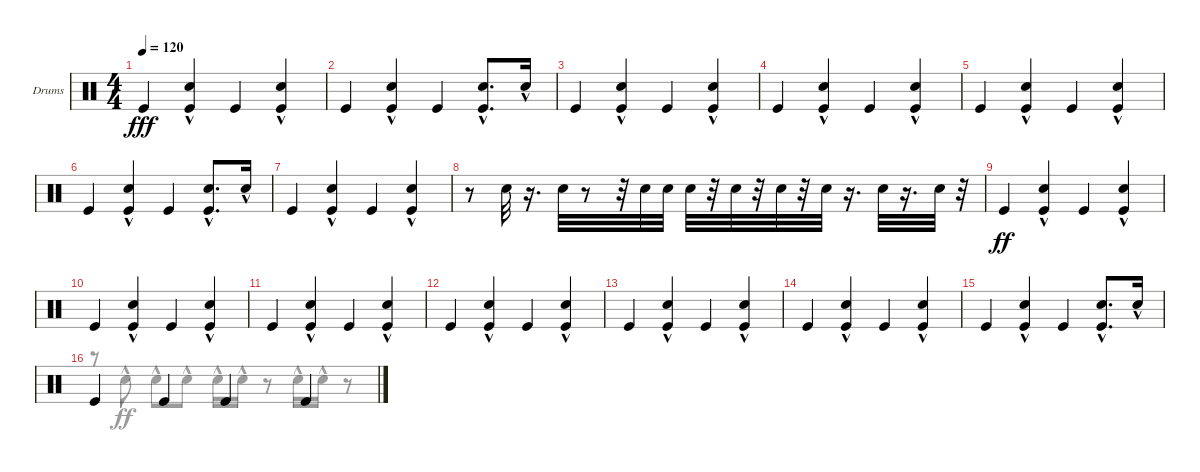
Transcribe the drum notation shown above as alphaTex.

\defaultSystemsLayout 4
\bracketExtendMode groupsimilarinstruments
\firstSystemTrackNameOrientation horizontal
\otherSystemsTrackNameOrientation horizontal
\track ("Drumkit" "Drums") {instrument percussion}
\staff {score}
\articulation defaults
\voice
\ts (4 4)
\tempo 120
\clef neutral
\scale
0.333333
\ks c "Kick (hit)".4{dy fff}
("Kick (hit)" "Snare (hit) 2"{hac}).4 "Kick (hit)".4 ("Kick (hit)" "Snare (hit) 2"{hac}).4 |
\scale
0.333333 "Kick (hit)".4 ("Kick (hit)" "Snare (hit) 2"{hac}).4 "Kick (hit)".4 ("Kick (hit)" "Snare (hit) 2"{hac}).8{d} "Snare (hit) 2"{hac}.16 |
\scale
0.333333 "Kick (hit)".4 ("Kick (hit)" "Snare (hit) 2"{hac}).4 "Kick (hit)".4 ("Kick (hit)" "Snare (hit) 2"{hac}).4 |
\scale
0.333333 "Kick (hit)".4 ("Kick (hit)" "Snare (hit) 2"{hac}).4 "Kick (hit)".4 ("Kick (hit)" "Snare (hit) 2"{hac}).4 |
\scale
0.333333 "Kick (hit)".4 ("Kick (hit)" "Snare (hit) 2"{hac}).4 "Kick (hit)".4 ("Kick (hit)" "Snare (hit) 2"{hac}).4 |
\scale
0.333333 "Kick (hit)".4 ("Kick (hit)" "Snare (hit) 2"{hac}).4 "Kick (hit)".4 ("Kick (hit)" "Snare (hit) 2"{hac}).8{d} "Snare (hit) 2"{hac}.16 |
\scale
0.333333 "Kick (hit)".4 ("Kick (hit)" "Snare (hit) 2"{hac}).4 "Kick (hit)".4 ("Kick (hit)" "Snare (hit) 2"{hac}).4 |
\scale
0.333333 r.8 "Snare (hit) 2".32 r.16{d} "Snare (hit) 2".32 r.8 r.32 "Snare (hit) 2".32 "Snare (hit) 2".32 "Snare (hit) 2".32 r.32 "Snare (hit) 2".32 r.32 "Snare (hit) 2".32 r.32 "Snare (hit) 2".32 r.16{d} "Snare (hit) 2".32 r.16{d} "Snare (hit) 2".32 r.32 |
\scale
0.333333 "Kick (hit)".4{dy ff} ("Kick (hit)" "Snare (hit) 2"{hac}).4 "Kick (hit)".4 ("Kick (hit)" "Snare (hit) 2"{hac}).4 |
\scale
0.333333 "Kick (hit)".4 ("Kick (hit)" "Snare (hit) 2"{hac}).4 "Kick (hit)".4 ("Kick (hit)" "Snare (hit) 2"{hac}).4 |
\scale
0.333333 "Kick (hit)".4 ("Kick (hit)" "Snare (hit) 2"{hac}).4 "Kick (hit)".4 ("Kick (hit)" "Snare (hit) 2"{hac}).4 |
\scale
0.333333 "Kick (hit)".4 ("Kick (hit)" "Snare (hit) 2"{hac}).4 "Kick (hit)".4 ("Kick (hit)" "Snare (hit) 2"{hac}).4 |
\scale
0.333333 "Kick (hit)".4 ("Kick (hit)" "Snare (hit) 2"{hac}).4 "Kick (hit)".4 ("Kick (hit)" "Snare (hit) 2"{hac}).4 |
\scale
0.333333 "Kick (hit)".4 ("Kick (hit)" "Snare (hit) 2"{hac}).4 "Kick (hit)".4 ("Kick (hit)" "Snare (hit) 2"{hac}).4 |
\scale
0.333333 "Kick (hit)".4 ("Kick (hit)" "Snare (hit) 2"{hac}).4 "Kick (hit)".4 ("Kick (hit)" "Snare (hit) 2"{hac}).8{d} "Snare (hit) 2"{hac}.16 |
\scale
0.333333 "Kick (hit)".4 "Kick (hit)".4 "Kick (hit)".4 "Kick (hit)".4
\voice
\clef neutral
\ottava regular
\simile none
\scale
0.333333
\ks c
|
\scale
0.333333 |
\scale
0.333333 |
\scale
0.333333 |
\scale
0.333333 |
\scale
0.333333 |
\scale
0.333333 |
\scale
0.333333 |
\scale
0.333333 |
\scale
0.333333 |
\scale
0.333333 |
\scale
0.333333 |
\scale
0.333333 |
\scale
0.333333 |
\scale
0.333333 |
\scale
0.333333 r.8 "Snare (hit) 2"{hac}.8{dy ff} "Snare (hit) 2"{hac}.8 "Snare (hit) 2"{hac}.8 "Snare (hit) 2"{hac}.16 "Snare (hit) 2"{hac}.16 r.8 "Snare (hit) 2"{hac}.16 "Snare (hit) 2"{hac}.16 r.8
